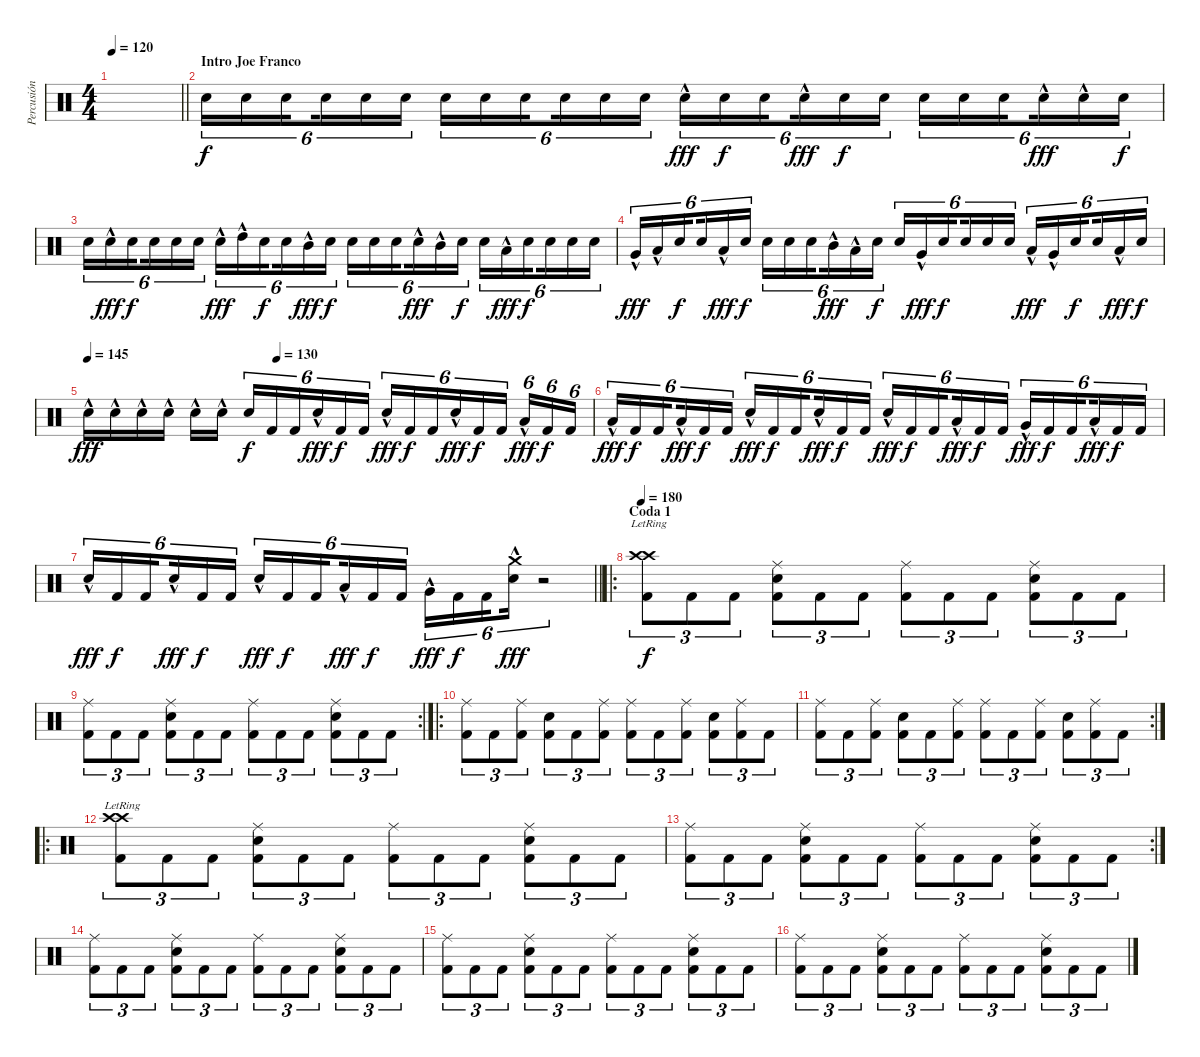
\track ("Percusión" "Percusión") {instrument percussion}
\staff {score}
\articulation defaults
\ts (4 4)
\tempo 120
\clef neutral
\barLineRight lightlight
\ks c
|
\section ("" "Intro Joe Franco")
"Snare (hit) 2".16{tu (6 4)} "Snare (hit) 2".16{tu (6 4)} "Snare (hit) 2".16{tu (6 4) beam splitsecondary} "Snare (hit) 2".16{tu (6 4)} "Snare (hit) 2".16{tu (6 4)} "Snare (hit) 2".16{tu (6 4)} "Snare (hit) 2".16{tu (6 4)} "Snare (hit) 2".16{tu (6 4)} "Snare (hit) 2".16{tu (6 4) beam splitsecondary} "Snare (hit) 2".16{tu (6 4)} "Snare (hit) 2".16{tu (6 4)} "Snare (hit) 2".16{tu (6 4)} "Snare (hit) 2"{hac}.16{tu (6 4) dy fff} "Snare (hit) 2".16{tu (6 4) dy f} "Snare (hit) 2".16{tu (6 4) beam splitsecondary} "Snare (hit) 2"{hac}.16{tu (6 4) dy fff} "Snare (hit) 2".16{tu (6 4) dy f} "Snare (hit) 2".16{tu (6 4)} "Snare (hit) 2".16{tu (6 4)} "Snare (hit) 2".16{tu (6 4)} "Snare (hit) 2".16{tu (6 4) beam splitsecondary} "Snare (hit) 2"{hac}.16{tu (6 4) dy fff} "Snare (hit) 2"{hac}.16{tu (6 4)} "Snare (hit) 2".16{tu (6 4) dy f} |
"Snare (hit) 2".16{tu (6 4)} "Snare (hit) 2"{hac}.16{tu (6 4) dy fff} "Snare (hit) 2".16{tu (6 4) dy f beam splitsecondary} "Snare (hit) 2".16{tu (6 4)} "Snare (hit) 2".16{tu (6 4)} "Snare (hit) 2".16{tu (6 4)} "Snare (hit) 2"{hac}.16{tu (6 4) dy fff} "High Tom (hit)"{hac}.16{tu (6 4)} "Snare (hit) 2".16{tu (6 4) dy f beam splitsecondary} "Snare (hit) 2".16{tu (6 4)} "Mid Tom (hit)"{hac}.16{tu (6 4) dy fff} "Snare (hit) 2".16{tu (6 4) dy f} "Snare (hit) 2".16{tu (6 4)} "Snare (hit) 2".16{tu (6 4)} "Snare (hit) 2".16{tu (6 4) beam splitsecondary} "Snare (hit) 2"{hac}.16{tu (6 4) dy fff} "Mid Tom (hit)"{hac}.16{tu (6 4)} "Snare (hit) 2".16{tu (6 4) dy f} "Snare (hit) 2".16{tu (6 4)} "Low Tom (hit)"{hac}.16{tu (6 4) dy fff} "Snare (hit) 2".16{tu (6 4) dy f beam splitsecondary} "Snare (hit) 2".16{tu (6 4)} "Snare (hit) 2".16{tu (6 4)} "Snare (hit) 2".16{tu (6 4)} |
"Very Low Tom (hit)"{hac}.16{tu (6 4) dy fff} "Low Floor Tom (hit)"{hac}.16{tu (6 4)} "Snare (hit) 2".16{tu (6 4) dy f beam splitsecondary} "Snare (hit) 2".16{tu (6 4)} "Low Floor Tom (hit)"{hac}.16{tu (6 4) dy fff} "Snare (hit) 2".16{tu (6 4) dy f} "Snare (hit) 2".16{tu (6 4)} "Snare (hit) 2".16{tu (6 4)} "Snare (hit) 2".16{tu (6 4) beam splitsecondary} "Mid Tom (hit)"{hac}.16{tu (6 4) dy fff} "Low Tom (hit)"{hac}.16{tu (6 4)} "Snare (hit) 2".16{tu (6 4) dy f} "Snare (hit) 2".16{tu (6 4)} "Very Low Tom (hit)"{hac}.16{tu (6 4) dy fff} "Snare (hit) 2".16{tu (6 4) dy f beam splitsecondary} "Snare (hit) 2".16{tu (6 4)} "Snare (hit) 2".16{tu (6 4)} "Snare (hit) 2".16{tu (6 4)} "Low Tom (hit)"{hac}.16{tu (6 4) dy fff} "Very Low Tom (hit)"{hac}.16{tu (6 4)} "Snare (hit) 2".16{tu (6 4) dy f beam splitsecondary} "Snare (hit) 2".16{tu (6 4)} "Low Floor Tom (hit)"{hac}.16{tu (6 4) dy fff} "Snare (hit) 2".16{tu (6 4) dy f} |
\tempo 145
\tempo (130 0.375)
"Snare (hit) 2"{hac}.16{dy fff} "Snare (hit) 2"{hac}.16 "Snare (hit) 2"{hac}.16 "Snare (hit) 2"{hac}.16 "Snare (hit) 2"{hac}.16 "Snare (hit) 2"{hac}.16{beam splitsecondary} "Snare (hit) 2".16{tu (6 4) dy f} "Kick (hit) 2".16{tu (6 4)} "Kick (hit) 2".16{tu (6 4)} "Snare (hit) 2"{hac}.16{tu (6 4) dy fff} "Kick (hit) 2".16{tu (6 4) dy f} "Kick (hit) 2".16{tu (6 4) beam splitsecondary} "Snare (hit) 2"{hac}.16{tu (6 4) dy fff} "Kick (hit) 2".16{tu (6 4) dy f} "Kick (hit) 2".16{tu (6 4)} "Snare (hit) 2"{hac}.16{tu (6 4) dy fff} "Kick (hit) 2".16{tu (6 4) dy f} "Kick (hit) 2".16{tu (6 4) beam splitsecondary} "Low Tom (hit)"{hac}.16{tu (6 4) dy fff} "Kick (hit) 2".16{tu (6 4) dy f} "Kick (hit) 2".16{tu (6 4)} |
"Low Tom (hit)"{hac}.16{tu (6 4) dy fff} "Kick (hit) 2".16{tu (6 4) dy f} "Kick (hit) 2".16{tu (6 4) beam splitsecondary} "Low Tom (hit)"{hac}.16{tu (6 4) dy fff} "Kick (hit) 2".16{tu (6 4) dy f} "Kick (hit) 2".16{tu (6 4)} "Snare (hit) 2"{hac}.16{tu (6 4) dy fff} "Kick (hit) 2".16{tu (6 4) dy f} "Kick (hit) 2".16{tu (6 4) beam splitsecondary} "Snare (hit) 2"{hac}.16{tu (6 4) dy fff} "Kick (hit) 2".16{tu (6 4) dy f} "Kick (hit) 2".16{tu (6 4)} "Snare (hit) 2"{hac}.16{tu (6 4) dy fff} "Kick (hit) 2".16{tu (6 4) dy f} "Kick (hit) 2".16{tu (6 4) beam splitsecondary} "Low Tom (hit)"{hac}.16{tu (6 4) dy fff} "Kick (hit) 2".16{tu (6 4) dy f} "Kick (hit) 2".16{tu (6 4)} "Very Low Tom (hit)"{hac}.16{tu (6 4) dy fff} "Kick (hit) 2".16{tu (6 4) dy f} "Kick (hit) 2".16{tu (6 4) beam splitsecondary} "Low Floor Tom (hit)"{hac}.16{tu (6 4) dy fff} "Kick (hit) 2".16{tu (6 4) dy f} "Kick (hit) 2".16{tu (6 4)} |
\barLineRight lightlight "Snare (hit) 2"{hac}.16{tu (6 4) dy fff} "Kick (hit) 2".16{tu (6 4) dy f} "Kick (hit) 2".16{tu (6 4) beam splitsecondary} "Snare (hit) 2"{hac}.16{tu (6 4) dy fff} "Kick (hit) 2".16{tu (6 4) dy f} "Kick (hit) 2".16{tu (6 4)} "Snare (hit) 2"{hac}.16{tu (6 4) dy fff} "Kick (hit) 2".16{tu (6 4) dy f} "Kick (hit) 2".16{tu (6 4) beam splitsecondary} "Low Tom (hit)"{hac}.16{tu (6 4) dy fff} "Kick (hit) 2".16{tu (6 4) dy f} "Kick (hit) 2".16{tu (6 4)} "Very Low Tom (hit)"{hac}.16{tu (6 4) dy fff} "Kick (hit) 2".16{tu (6 4) dy f} "Kick (hit) 2".16{tu (6 4) beam splitsecondary}
("Crash medium (hit)" "Snare (hit) 2"{hac}).16{tu (6 4) dy fff} r.2{tu (6 4)} |
\ro
\section ("" "Coda 1")
\tempo 180
("Crash high (hit)"{lr} "Crash high (hit)"{lr} "Kick (hit) 2").8{tu (3 2) dy f} "Kick (hit) 2".8{tu (3 2)} "Kick (hit) 2".8{tu (3 2)} ("Ride (middle)" "Snare (hit) 2" "Kick (hit) 2").8{tu (3 2)} "Kick (hit) 2".8{tu (3 2)} "Kick (hit) 2".8{tu (3 2)} ("Ride (middle)" "Kick (hit) 2").8{tu (3 2)} "Kick (hit) 2".8{tu (3 2)} "Kick (hit) 2".8{tu (3 2)} ("Ride (middle)" "Snare (hit) 2" "Kick (hit) 2").8{tu (3 2)} "Kick (hit) 2".8{tu (3 2)} "Kick (hit) 2".8{tu (3 2)} |
\rc 2
("Ride (middle)" "Kick (hit) 2").8{tu (3 2)} "Kick (hit) 2".8{tu (3 2)} "Kick (hit) 2".8{tu (3 2)} ("Ride (middle)" "Snare (hit) 2" "Kick (hit) 2").8{tu (3 2)} "Kick (hit) 2".8{tu (3 2)} "Kick (hit) 2".8{tu (3 2)} ("Ride (middle)" "Kick (hit) 2").8{tu (3 2)} "Kick (hit) 2".8{tu (3 2)} "Kick (hit) 2".8{tu (3 2)} ("Ride (middle)" "Snare (hit) 2" "Kick (hit) 2").8{tu (3 2)} "Kick (hit) 2".8{tu (3 2)} "Kick (hit) 2".8{tu (3 2)} |
\ro
("Ride (middle)" "Kick (hit) 2").8{tu (3 2)} "Kick (hit) 2".8{tu (3 2)} ("Ride (middle)" "Kick (hit) 2").8{tu (3 2)} ("Snare (hit) 2" "Kick (hit) 2").8{tu (3 2)} "Kick (hit) 2".8{tu (3 2)} ("Ride (middle)" "Kick (hit) 2").8{tu (3 2)} ("Ride (middle)" "Kick (hit) 2").8{tu (3 2)} "Kick (hit) 2".8{tu (3 2)} ("Ride (middle)" "Kick (hit) 2").8{tu (3 2)} ("Snare (hit) 2" "Kick (hit) 2").8{tu (3 2)} ("Ride (middle)" "Kick (hit) 2").8{tu (3 2)} "Kick (hit) 2".8{tu (3 2)} |
\rc 2
("Ride (middle)" "Kick (hit) 2").8{tu (3 2)} "Kick (hit) 2".8{tu (3 2)} ("Ride (middle)" "Kick (hit) 2").8{tu (3 2)} ("Snare (hit) 2" "Kick (hit) 2").8{tu (3 2)} "Kick (hit) 2".8{tu (3 2)} ("Ride (middle)" "Kick (hit) 2").8{tu (3 2)} ("Ride (middle)" "Kick (hit) 2").8{tu (3 2)} "Kick (hit) 2".8{tu (3 2)} ("Ride (middle)" "Kick (hit) 2").8{tu (3 2)} ("Snare (hit) 2" "Kick (hit) 2").8{tu (3 2)} ("Ride (middle)" "Kick (hit) 2").8{tu (3 2)} "Kick (hit) 2".8{tu (3 2)} |
\ro
("Crash high (hit)"{lr} "Crash high (hit)"{lr} "Kick (hit) 2").8{tu (3 2)} "Kick (hit) 2".8{tu (3 2)} "Kick (hit) 2".8{tu (3 2)} ("Ride (middle)" "Snare (hit) 2" "Kick (hit) 2").8{tu (3 2)} "Kick (hit) 2".8{tu (3 2)} "Kick (hit) 2".8{tu (3 2)} ("Ride (middle)" "Kick (hit) 2").8{tu (3 2)} "Kick (hit) 2".8{tu (3 2)} "Kick (hit) 2".8{tu (3 2)} ("Ride (middle)" "Snare (hit) 2" "Kick (hit) 2").8{tu (3 2)} "Kick (hit) 2".8{tu (3 2)} "Kick (hit) 2".8{tu (3 2)} |
\rc 2
("Ride (middle)" "Kick (hit) 2").8{tu (3 2)} "Kick (hit) 2".8{tu (3 2)} "Kick (hit) 2".8{tu (3 2)} ("Ride (middle)" "Snare (hit) 2" "Kick (hit) 2").8{tu (3 2)} "Kick (hit) 2".8{tu (3 2)} "Kick (hit) 2".8{tu (3 2)} ("Ride (middle)" "Kick (hit) 2").8{tu (3 2)} "Kick (hit) 2".8{tu (3 2)} "Kick (hit) 2".8{tu (3 2)} ("Ride (middle)" "Snare (hit) 2" "Kick (hit) 2").8{tu (3 2)} "Kick (hit) 2".8{tu (3 2)} "Kick (hit) 2".8{tu (3 2)} |
("Ride (middle)" "Kick (hit) 2").8{tu (3 2)} "Kick (hit) 2".8{tu (3 2)} "Kick (hit) 2".8{tu (3 2)} ("Ride (middle)" "Snare (hit) 2" "Kick (hit) 2").8{tu (3 2)} "Kick (hit) 2".8{tu (3 2)} "Kick (hit) 2".8{tu (3 2)} ("Ride (middle)" "Kick (hit) 2").8{tu (3 2)} "Kick (hit) 2".8{tu (3 2)} "Kick (hit) 2".8{tu (3 2)} ("Ride (middle)" "Snare (hit) 2" "Kick (hit) 2").8{tu (3 2)} "Kick (hit) 2".8{tu (3 2)} "Kick (hit) 2".8{tu (3 2)} |
("Ride (middle)" "Kick (hit) 2").8{tu (3 2)} "Kick (hit) 2".8{tu (3 2)} "Kick (hit) 2".8{tu (3 2)} ("Ride (middle)" "Snare (hit) 2" "Kick (hit) 2").8{tu (3 2)} "Kick (hit) 2".8{tu (3 2)} "Kick (hit) 2".8{tu (3 2)} ("Ride (middle)" "Kick (hit) 2").8{tu (3 2)} "Kick (hit) 2".8{tu (3 2)} "Kick (hit) 2".8{tu (3 2)} ("Ride (middle)" "Snare (hit) 2" "Kick (hit) 2").8{tu (3 2)} "Kick (hit) 2".8{tu (3 2)} "Kick (hit) 2".8{tu (3 2)} |
("Ride (middle)" "Kick (hit) 2").8{tu (3 2)} "Kick (hit) 2".8{tu (3 2)} "Kick (hit) 2".8{tu (3 2)} ("Ride (middle)" "Snare (hit) 2" "Kick (hit) 2").8{tu (3 2)} "Kick (hit) 2".8{tu (3 2)} "Kick (hit) 2".8{tu (3 2)} ("Ride (middle)" "Kick (hit) 2").8{tu (3 2)} "Kick (hit) 2".8{tu (3 2)} "Kick (hit) 2".8{tu (3 2)} ("Ride (middle)" "Snare (hit) 2" "Kick (hit) 2").8{tu (3 2)} "Kick (hit) 2".8{tu (3 2)} "Kick (hit) 2".8{tu (3 2)}
